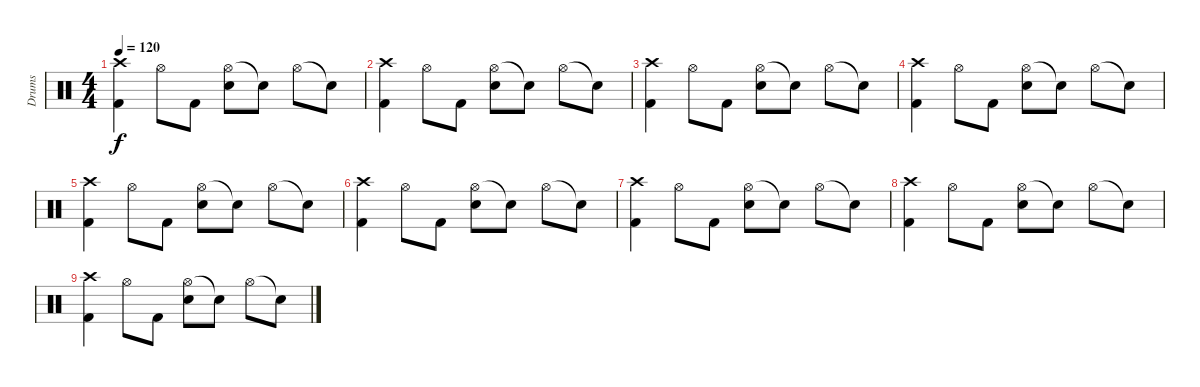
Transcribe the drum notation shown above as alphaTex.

\track ("Drums" "Drums") {instrument percussion}
\staff {score}
\articulation defaults
\ts (4 4)
\tempo 120
\clef neutral
\ks c
("Crash high (hit)" "Kick (hit) 2").4{dy f} "Hi-Hat (open)".8 "Kick (hit) 2".8 ("Hi-Hat (open)" "Electric Snare (hit)").8 "Snare (hit)"{t}.8 "Hi-Hat (open)".8 "Snare (hit)"{t}.8 |
("Crash high (hit)" "Kick (hit) 2").4 "Hi-Hat (open)".8 "Kick (hit) 2".8 ("Hi-Hat (open)" "Electric Snare (hit)").8 "Snare (hit)"{t}.8 "Hi-Hat (open)".8 "Snare (hit)"{t}.8 |
("Crash high (hit)" "Kick (hit) 2").4 "Hi-Hat (open)".8 "Kick (hit) 2".8 ("Hi-Hat (open)" "Electric Snare (hit)").8 "Snare (hit)"{t}.8 "Hi-Hat (open)".8 "Snare (hit)"{t}.8 |
("Crash high (hit)" "Kick (hit) 2").4 "Hi-Hat (open)".8 "Kick (hit) 2".8 ("Hi-Hat (open)" "Electric Snare (hit)").8 "Snare (hit)"{t}.8 "Hi-Hat (open)".8 "Snare (hit)"{t}.8 |
("Crash high (hit)" "Kick (hit) 2").4 "Hi-Hat (open)".8 "Kick (hit) 2".8 ("Hi-Hat (open)" "Electric Snare (hit)").8 "Snare (hit)"{t}.8 "Hi-Hat (open)".8 "Snare (hit)"{t}.8 |
("Crash high (hit)" "Kick (hit) 2").4{volume 8} "Hi-Hat (open)".8 "Kick (hit) 2".8 ("Hi-Hat (open)" "Electric Snare (hit)").8 "Snare (hit)"{t}.8 "Hi-Hat (open)".8 "Snare (hit)"{t}.8 |
("Crash high (hit)" "Kick (hit) 2").4 "Hi-Hat (open)".8 "Kick (hit) 2".8 ("Hi-Hat (open)" "Electric Snare (hit)").8 "Snare (hit)"{t}.8 "Hi-Hat (open)".8 "Snare (hit)"{t}.8 |
("Crash high (hit)" "Kick (hit) 2").4{volume 0} "Hi-Hat (open)".8 "Kick (hit) 2".8 ("Hi-Hat (open)" "Electric Snare (hit)").8 "Snare (hit)"{t}.8 "Hi-Hat (open)".8 "Snare (hit)"{t}.8 |
("Crash high (hit)" "Kick (hit) 2").4 "Hi-Hat (open)".8 "Kick (hit) 2".8 ("Hi-Hat (open)" "Electric Snare (hit)").8 "Snare (hit)"{t}.8 "Hi-Hat (open)".8 "Snare (hit)"{t}.8
